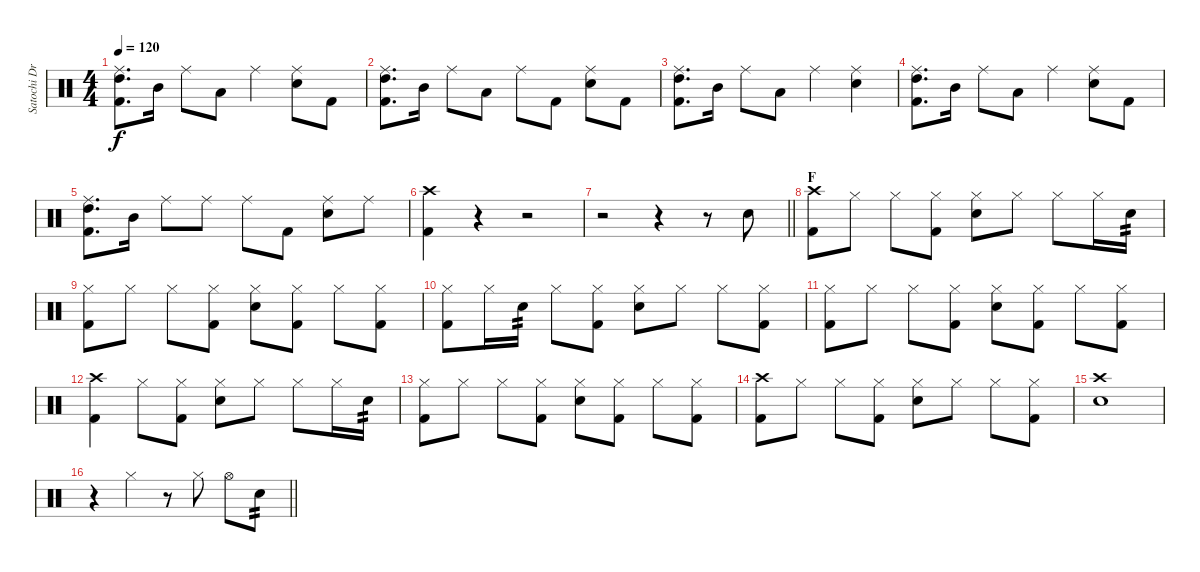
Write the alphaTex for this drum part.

\track ("Satochi Drums" "Satochi Dr") {instrument percussion}
\staff {score}
\articulation defaults
\ts (4 4)
\tempo 120
\clef neutral
\ks c
("Ride (middle)" "High Tom (hit)" "Kick (hit) 2").8{d dy f} "Mid Tom (hit)".16 "Ride (middle)".8 "Low Floor Tom (hit)".8 "Ride (middle)".4 ("Ride (middle)" "Snare (hit) 2").8 "Kick (hit) 2".8 |
("Ride (middle)" "High Tom (hit)" "Kick (hit) 2").8{d} "Mid Tom (hit)".16 "Ride (middle)".8 "Low Floor Tom (hit)".8 "Ride (middle)".8 "Kick (hit) 2".8 ("Ride (middle)" "Snare (hit) 2").8 "Kick (hit) 2".8 |
("Ride (middle)" "High Tom (hit)" "Kick (hit) 2").8{d} "Mid Tom (hit)".16 "Ride (middle)".8 "Low Floor Tom (hit)".8 "Ride (middle)".4 ("Ride (middle)" "Snare (hit) 2").4 |
("Ride (middle)" "High Tom (hit)" "Kick (hit) 2").8{d} "Mid Tom (hit)".16 "Ride (middle)".8 "Low Floor Tom (hit)".8 "Ride (middle)".4 ("Ride (middle)" "Snare (hit) 2").8 "Kick (hit) 2".8 |
("Ride (middle)" "High Tom (hit)" "Kick (hit) 2").8{d} "Mid Tom (hit)".16 "Ride (middle)".8 "Ride (middle)".8 "Ride (middle)".8 "Kick (hit) 2".8 ("Ride (middle)" "Snare (hit) 2").8 "Ride (middle)".8 |
("Crash high (hit)" "Kick (hit) 2").4 r.4 r.2 |
\barLineRight lightlight
r.2 r.4 r.8 "Snare (hit) 2".8 |
\section ("" "F")
("Crash high (hit)" "Kick (hit) 2").8 "Hi-Hat (closed)".8 "Hi-Hat (closed)".8 ("Hi-Hat (closed)" "Kick (hit) 2").8 ("Hi-Hat (closed)" "Snare (hit) 2").8 "Hi-Hat (closed)".8 "Hi-Hat (closed)".8 "Hi-Hat (closed)".16 "Snare (hit) 2".16{tp 2} |
("Hi-Hat (closed)" "Kick (hit) 2").8 "Hi-Hat (closed)".8 "Hi-Hat (closed)".8 ("Hi-Hat (closed)" "Kick (hit) 2").8 ("Hi-Hat (closed)" "Snare (hit) 2").8 ("Hi-Hat (closed)" "Kick (hit) 2").8 "Hi-Hat (closed)".8 ("Hi-Hat (closed)" "Kick (hit) 2").8 |
("Hi-Hat (closed)" "Kick (hit) 2").8 "Hi-Hat (closed)".16 "Snare (hit) 2".16{tp 2} "Hi-Hat (closed)".8 ("Hi-Hat (closed)" "Kick (hit) 2").8 ("Hi-Hat (closed)" "Snare (hit) 2").8 "Hi-Hat (closed)".8 "Hi-Hat (closed)".8 ("Hi-Hat (closed)" "Kick (hit) 2").8 |
("Hi-Hat (closed)" "Kick (hit) 2").8 "Hi-Hat (closed)".8 "Hi-Hat (closed)".8 ("Hi-Hat (closed)" "Kick (hit) 2").8 ("Hi-Hat (closed)" "Snare (hit) 2").8 ("Hi-Hat (closed)" "Kick (hit) 2").8 "Hi-Hat (closed)".8 ("Hi-Hat (closed)" "Kick (hit) 2").8 |
("Crash high (hit)" "Kick (hit) 2").4 "Hi-Hat (closed)".8 ("Hi-Hat (closed)" "Kick (hit) 2").8 ("Hi-Hat (closed)" "Snare (hit) 2").8 "Hi-Hat (closed)".8 "Hi-Hat (closed)".8 "Hi-Hat (closed)".16 "Snare (hit) 2".16{tp 2} |
("Hi-Hat (closed)" "Kick (hit) 2").8 "Hi-Hat (closed)".8 "Hi-Hat (closed)".8 ("Hi-Hat (closed)" "Kick (hit) 2").8 ("Hi-Hat (closed)" "Snare (hit) 2").8 ("Hi-Hat (closed)" "Kick (hit) 2").8 "Hi-Hat (closed)".8 ("Hi-Hat (closed)" "Kick (hit) 2").8 |
("Crash high (hit)" "Kick (hit) 2").8 "Hi-Hat (closed)".8 "Hi-Hat (closed)".8 ("Hi-Hat (closed)" "Kick (hit) 2").8 ("Hi-Hat (closed)" "Snare (hit) 2").8 "Hi-Hat (closed)".8 "Hi-Hat (closed)".8 ("Hi-Hat (closed)" "Kick (hit) 2").8 |
("Crash high (hit)" "Snare (hit) 2").1 |
\barLineRight lightlight
r.4 "Hi-Hat (closed)".4 r.8 "Hi-Hat (closed)".8 "Hi-Hat (open)".8 "Snare (hit) 2".8{tp 2}
